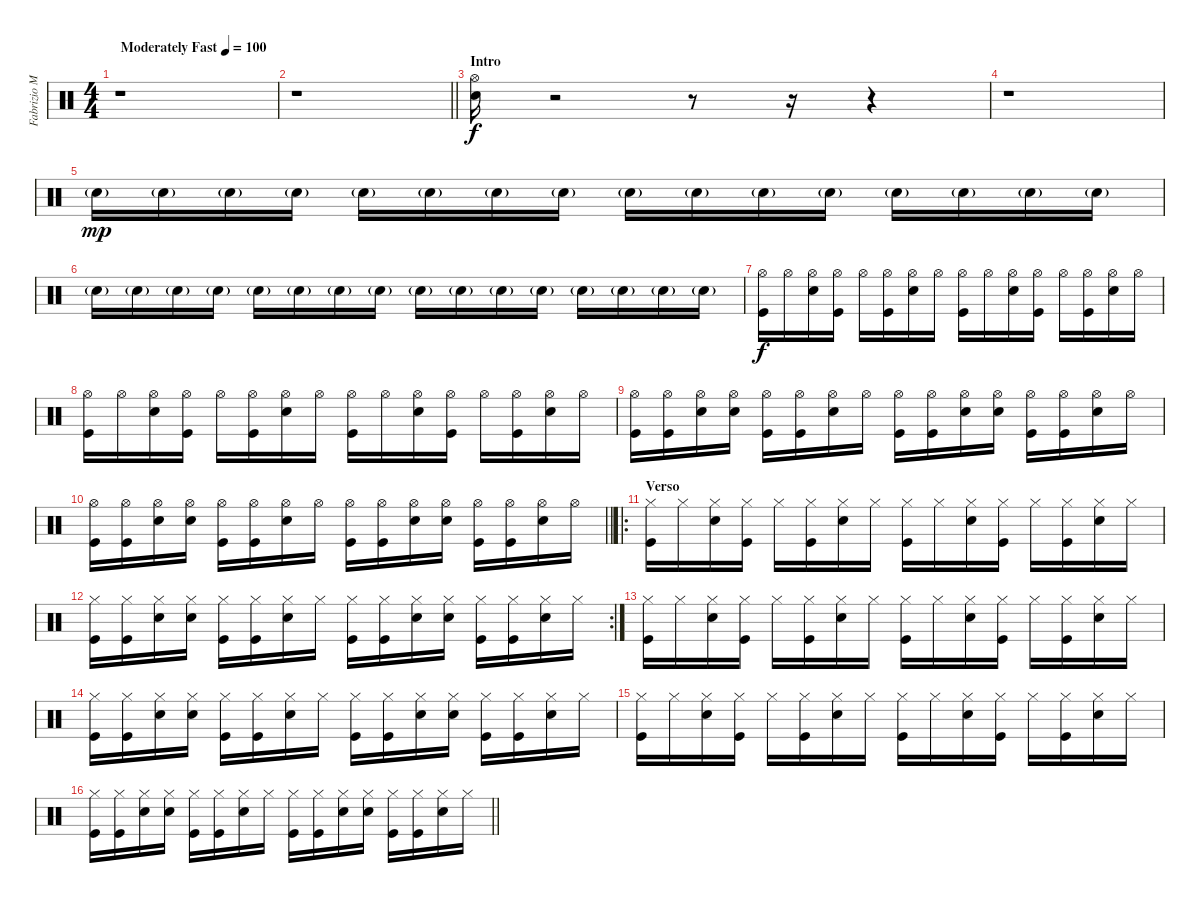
\track ("Fabrizio Moretti" "Fabrizio M") {instrument percussion}
\staff {score}
\articulation defaults
\ts (4 4)
\tempo (100 "Moderately Fast")
\clef neutral
\ks c
r.1{dy f} |
\barLineRight lightlight
r.1 |
\section ("" "Intro")
("Hi-Hat (open)" "Snare (hit) 2").16 r.2 r.8 r.16 r.4 |
r.1 |
"Snare (hit) 2"{g}.16{dy mp} "Snare (hit) 2"{g}.16 "Snare (hit) 2"{g}.16 "Snare (hit) 2"{g}.16 "Snare (hit) 2"{g}.16 "Snare (hit) 2"{g}.16 "Snare (hit) 2"{g}.16 "Snare (hit) 2"{g}.16 "Snare (hit) 2"{g}.16 "Snare (hit) 2"{g}.16 "Snare (hit) 2"{g}.16 "Snare (hit) 2"{g}.16 "Snare (hit) 2"{g}.16 "Snare (hit) 2"{g}.16 "Snare (hit) 2"{g}.16 "Snare (hit) 2"{g}.16 |
"Snare (hit) 2"{g}.16 "Snare (hit) 2"{g}.16 "Snare (hit) 2"{g}.16 "Snare (hit) 2"{g}.16 "Snare (hit) 2"{g}.16 "Snare (hit) 2"{g}.16 "Snare (hit) 2"{g}.16 "Snare (hit) 2"{g}.16 "Snare (hit) 2"{g}.16 "Snare (hit) 2"{g}.16 "Snare (hit) 2"{g}.16 "Snare (hit) 2"{g}.16 "Snare (hit) 2"{g}.16 "Snare (hit) 2"{g}.16 "Snare (hit) 2"{g}.16 "Snare (hit) 2"{g}.16 |
("Hi-Hat (open)" "Kick (hit)").16{dy f} "Hi-Hat (open)".16 ("Hi-Hat (open)" "Snare (hit) 2").16 ("Hi-Hat (open)" "Kick (hit)").16 "Hi-Hat (open)".16 ("Hi-Hat (open)" "Kick (hit)").16 ("Hi-Hat (open)" "Snare (hit) 2").16 "Hi-Hat (open)".16 ("Hi-Hat (open)" "Kick (hit)").16 "Hi-Hat (open)".16 ("Hi-Hat (open)" "Snare (hit) 2").16 ("Hi-Hat (open)" "Kick (hit)").16 "Hi-Hat (open)".16 ("Hi-Hat (open)" "Kick (hit)").16 ("Hi-Hat (open)" "Snare (hit) 2").16 "Hi-Hat (open)".16 |
("Hi-Hat (open)" "Kick (hit)").16 "Hi-Hat (open)".16 ("Hi-Hat (open)" "Snare (hit) 2").16 ("Hi-Hat (open)" "Kick (hit)").16 "Hi-Hat (open)".16 ("Hi-Hat (open)" "Kick (hit)").16 ("Hi-Hat (open)" "Snare (hit) 2").16 "Hi-Hat (open)".16 ("Hi-Hat (open)" "Kick (hit)").16 "Hi-Hat (open)".16 ("Hi-Hat (open)" "Snare (hit) 2").16 ("Hi-Hat (open)" "Kick (hit)").16 "Hi-Hat (open)".16 ("Hi-Hat (open)" "Kick (hit)").16 ("Hi-Hat (open)" "Snare (hit) 2").16 "Hi-Hat (open)".16 |
("Hi-Hat (open)" "Kick (hit)").16 ("Hi-Hat (open)" "Kick (hit)").16 ("Hi-Hat (open)" "Snare (hit) 2").16 ("Hi-Hat (open)" "Snare (hit) 2").16 ("Hi-Hat (open)" "Kick (hit)").16 ("Hi-Hat (open)" "Kick (hit)").16 ("Hi-Hat (open)" "Snare (hit) 2").16 "Hi-Hat (open)".16 ("Hi-Hat (open)" "Kick (hit)").16 ("Hi-Hat (open)" "Kick (hit)").16 ("Hi-Hat (open)" "Snare (hit) 2").16 ("Hi-Hat (open)" "Snare (hit) 2").16 ("Hi-Hat (open)" "Kick (hit)").16 ("Hi-Hat (open)" "Kick (hit)").16 ("Hi-Hat (open)" "Snare (hit) 2").16 "Hi-Hat (open)".16 |
\barLineRight lightlight
("Hi-Hat (open)" "Kick (hit)").16 ("Hi-Hat (open)" "Kick (hit)").16 ("Hi-Hat (open)" "Snare (hit) 2").16 ("Hi-Hat (open)" "Snare (hit) 2").16 ("Hi-Hat (open)" "Kick (hit)").16 ("Hi-Hat (open)" "Kick (hit)").16 ("Hi-Hat (open)" "Snare (hit) 2").16 "Hi-Hat (open)".16 ("Hi-Hat (open)" "Kick (hit)").16 ("Hi-Hat (open)" "Kick (hit)").16 ("Hi-Hat (open)" "Snare (hit) 2").16 ("Hi-Hat (open)" "Snare (hit) 2").16 ("Hi-Hat (open)" "Kick (hit)").16 ("Hi-Hat (open)" "Kick (hit)").16 ("Hi-Hat (open)" "Snare (hit) 2").16 "Hi-Hat (open)".16 |
\ro
\section ("" "Verso")
("Hi-Hat (closed)" "Kick (hit)").16 "Hi-Hat (closed)".16 ("Hi-Hat (closed)" "Snare (hit) 2").16 ("Hi-Hat (closed)" "Kick (hit)").16 "Hi-Hat (closed)".16 ("Hi-Hat (closed)" "Kick (hit)").16 ("Hi-Hat (closed)" "Snare (hit) 2").16 "Hi-Hat (closed)".16 ("Hi-Hat (closed)" "Kick (hit)").16 "Hi-Hat (closed)".16 ("Hi-Hat (closed)" "Snare (hit) 2").16 ("Hi-Hat (closed)" "Kick (hit)").16 "Hi-Hat (closed)".16 ("Hi-Hat (closed)" "Kick (hit)").16 ("Hi-Hat (closed)" "Snare (hit) 2").16 "Hi-Hat (closed)".16 |
\rc 2
("Hi-Hat (closed)" "Kick (hit)").16 ("Hi-Hat (closed)" "Kick (hit)").16 ("Hi-Hat (closed)" "Snare (hit) 2").16 ("Hi-Hat (closed)" "Snare (hit) 2").16 ("Hi-Hat (closed)" "Kick (hit)").16 ("Hi-Hat (closed)" "Kick (hit)").16 ("Hi-Hat (closed)" "Snare (hit) 2").16 "Hi-Hat (closed)".16 ("Hi-Hat (closed)" "Kick (hit)").16 ("Hi-Hat (closed)" "Kick (hit)").16 ("Hi-Hat (closed)" "Snare (hit) 2").16 ("Hi-Hat (closed)" "Snare (hit) 2").16 ("Hi-Hat (closed)" "Kick (hit)").16 ("Hi-Hat (closed)" "Kick (hit)").16 ("Hi-Hat (closed)" "Snare (hit) 2").16 "Hi-Hat (closed)".16 |
("Hi-Hat (closed)" "Kick (hit)").16 "Hi-Hat (closed)".16 ("Hi-Hat (closed)" "Snare (hit) 2").16 ("Hi-Hat (closed)" "Kick (hit)").16 "Hi-Hat (closed)".16 ("Hi-Hat (closed)" "Kick (hit)").16 ("Hi-Hat (closed)" "Snare (hit) 2").16 "Hi-Hat (closed)".16 ("Hi-Hat (closed)" "Kick (hit)").16 "Hi-Hat (closed)".16 ("Hi-Hat (closed)" "Snare (hit) 2").16 ("Hi-Hat (closed)" "Kick (hit)").16 "Hi-Hat (closed)".16 ("Hi-Hat (closed)" "Kick (hit)").16 ("Hi-Hat (closed)" "Snare (hit) 2").16 "Hi-Hat (closed)".16 |
("Hi-Hat (closed)" "Kick (hit)").16 ("Hi-Hat (closed)" "Kick (hit)").16 ("Hi-Hat (closed)" "Snare (hit) 2").16 ("Hi-Hat (closed)" "Snare (hit) 2").16 ("Hi-Hat (closed)" "Kick (hit)").16 ("Hi-Hat (closed)" "Kick (hit)").16 ("Hi-Hat (closed)" "Snare (hit) 2").16 "Hi-Hat (closed)".16 ("Hi-Hat (closed)" "Kick (hit)").16 ("Hi-Hat (closed)" "Kick (hit)").16 ("Hi-Hat (closed)" "Snare (hit) 2").16 ("Hi-Hat (closed)" "Snare (hit) 2").16 ("Hi-Hat (closed)" "Kick (hit)").16 ("Hi-Hat (closed)" "Kick (hit)").16 ("Hi-Hat (closed)" "Snare (hit) 2").16 "Hi-Hat (closed)".16 |
("Hi-Hat (closed)" "Kick (hit)").16 "Hi-Hat (closed)".16 ("Hi-Hat (closed)" "Snare (hit) 2").16 ("Hi-Hat (closed)" "Kick (hit)").16 "Hi-Hat (closed)".16 ("Hi-Hat (closed)" "Kick (hit)").16 ("Hi-Hat (closed)" "Snare (hit) 2").16 "Hi-Hat (closed)".16 ("Hi-Hat (closed)" "Kick (hit)").16 "Hi-Hat (closed)".16 ("Hi-Hat (closed)" "Snare (hit) 2").16 ("Hi-Hat (closed)" "Kick (hit)").16 "Hi-Hat (closed)".16 ("Hi-Hat (closed)" "Kick (hit)").16 ("Hi-Hat (closed)" "Snare (hit) 2").16 "Hi-Hat (closed)".16 |
\barLineRight lightlight
("Hi-Hat (closed)" "Kick (hit)").16 ("Hi-Hat (closed)" "Kick (hit)").16 ("Hi-Hat (closed)" "Snare (hit) 2").16 ("Hi-Hat (closed)" "Snare (hit) 2").16 ("Hi-Hat (closed)" "Kick (hit)").16 ("Hi-Hat (closed)" "Kick (hit)").16 ("Hi-Hat (closed)" "Snare (hit) 2").16 "Hi-Hat (closed)".16 ("Hi-Hat (closed)" "Kick (hit)").16 ("Hi-Hat (closed)" "Kick (hit)").16 ("Hi-Hat (closed)" "Snare (hit) 2").16 ("Hi-Hat (closed)" "Snare (hit) 2").16 ("Hi-Hat (closed)" "Kick (hit)").16 ("Hi-Hat (closed)" "Kick (hit)").16 ("Hi-Hat (closed)" "Snare (hit) 2").16 "Hi-Hat (closed)".16
